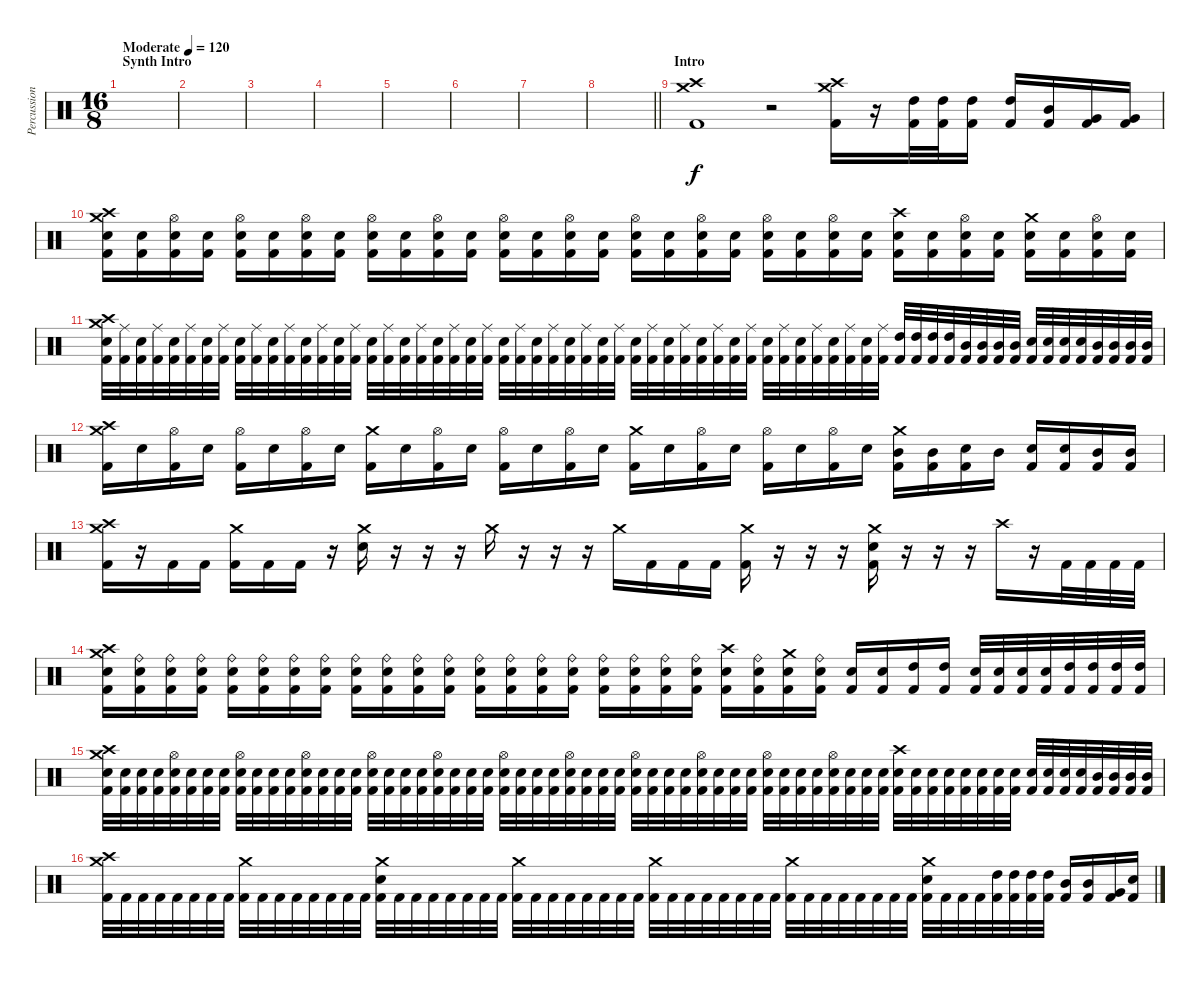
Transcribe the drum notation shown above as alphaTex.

\track ("Percussion" "Percussion") {instrument percussion}
\staff {score}
\articulation defaults
\ts (16 8)
\section ("" "Synth Intro")
\tempo (120 "Moderate")
\clef neutral
\ks c
|
|
|
|
|
|
|
\barLineRight lightlight
|
\section ("" "Intro")
("Crash high (hit)" "Crash medium (hit)" "Kick (hit) 2").1 r.2 ("Crash high (hit)" "Crash medium (hit)" "Kick (hit) 2").16 r.16 ("High Tom (hit)" "Kick (hit) 2").32 ("High Tom (hit)" "Kick (hit) 2").32 ("High Tom (hit)" "Kick (hit) 2").16 ("High Tom (hit)" "Kick (hit) 2").16 ("Mid Tom (hit)" "Kick (hit) 2").16 ("Very Low Tom (hit)" "Kick (hit) 2").16 ("Very Low Tom (hit)" "Kick (hit) 2").16 |
("Crash high (hit)" "Crash medium (hit)" "Snare (hit) 2" "Kick (hit) 2").16 ("Snare (hit) 2" "Kick (hit) 2").16 ("Hi-Hat (open)" "Snare (hit) 2" "Kick (hit) 2").16 ("Snare (hit) 2" "Kick (hit) 2").16 ("Hi-Hat (open)" "Snare (hit) 2" "Kick (hit) 2").16 ("Snare (hit) 2" "Kick (hit) 2").16 ("Hi-Hat (open)" "Snare (hit) 2" "Kick (hit) 2").16 ("Snare (hit) 2" "Kick (hit) 2").16 ("Hi-Hat (open)" "Snare (hit) 2" "Kick (hit) 2").16 ("Snare (hit) 2" "Kick (hit) 2").16 ("Hi-Hat (open)" "Snare (hit) 2" "Kick (hit) 2").16 ("Snare (hit) 2" "Kick (hit) 2").16 ("Hi-Hat (open)" "Snare (hit) 2" "Kick (hit) 2").16 ("Snare (hit) 2" "Kick (hit) 2").16 ("Hi-Hat (open)" "Snare (hit) 2" "Kick (hit) 2").16 ("Snare (hit) 2" "Kick (hit) 2").16 ("Hi-Hat (open)" "Snare (hit) 2" "Kick (hit) 2").16 ("Snare (hit) 2" "Kick (hit) 2").16 ("Hi-Hat (open)" "Snare (hit) 2" "Kick (hit) 2").16 ("Snare (hit) 2" "Kick (hit) 2").16 ("Hi-Hat (open)" "Snare (hit) 2" "Kick (hit) 2").16 ("Snare (hit) 2" "Kick (hit) 2").16 ("Hi-Hat (open)" "Snare (hit) 2" "Kick (hit) 2").16 ("Snare (hit) 2" "Kick (hit) 2").16 ("Crash high (hit)" "Snare (hit) 2" "Kick (hit) 2").16 ("Snare (hit) 2" "Kick (hit) 2").16 ("Hi-Hat (open)" "Snare (hit) 2" "Kick (hit) 2").16 ("Snare (hit) 2" "Kick (hit) 2").16 ("Crash medium (hit)" "Snare (hit) 2" "Kick (hit) 2").16 ("Snare (hit) 2" "Kick (hit) 2").16 ("Hi-Hat (open)" "Snare (hit) 2" "Kick (hit) 2").16 ("Snare (hit) 2" "Kick (hit) 2").16 |
("Crash medium (hit)" "Crash high (hit)" "Snare (hit) 2" "Kick (hit) 2").32 ("Ride (middle)" "Kick (hit) 2").32 ("Snare (hit) 2" "Kick (hit) 2").32 ("Ride (middle)" "Kick (hit) 2").32 ("Snare (hit) 2" "Kick (hit) 2").32 ("Ride (middle)" "Kick (hit) 2").32 ("Snare (hit) 2" "Kick (hit) 2").32 ("Ride (middle)" "Kick (hit) 2").32 ("Snare (hit) 2" "Kick (hit) 2").32 ("Ride (middle)" "Kick (hit) 2").32 ("Snare (hit) 2" "Kick (hit) 2").32 ("Ride (middle)" "Kick (hit) 2").32 ("Snare (hit) 2" "Kick (hit) 2").32 ("Ride (middle)" "Kick (hit) 2").32 ("Snare (hit) 2" "Kick (hit) 2").32 ("Ride (middle)" "Kick (hit) 2").32 ("Snare (hit) 2" "Kick (hit) 2").32 ("Ride (middle)" "Kick (hit) 2").32 ("Snare (hit) 2" "Kick (hit) 2").32 ("Ride (middle)" "Kick (hit) 2").32 ("Snare (hit) 2" "Kick (hit) 2").32 ("Ride (middle)" "Kick (hit) 2").32 ("Snare (hit) 2" "Kick (hit) 2").32 ("Ride (middle)" "Kick (hit) 2").32 ("Snare (hit) 2" "Kick (hit) 2").32 ("Ride (middle)" "Kick (hit) 2").32 ("Snare (hit) 2" "Kick (hit) 2").32 ("Ride (middle)" "Kick (hit) 2").32 ("Snare (hit) 2" "Kick (hit) 2").32 ("Ride (middle)" "Kick (hit) 2").32 ("Snare (hit) 2" "Kick (hit) 2").32 ("Ride (middle)" "Kick (hit) 2").32 ("Snare (hit) 2" "Kick (hit) 2").32 ("Ride (middle)" "Kick (hit) 2").32 ("Snare (hit) 2" "Kick (hit) 2").32 ("Ride (middle)" "Kick (hit) 2").32 ("Snare (hit) 2" "Kick (hit) 2").32 ("Ride (middle)" "Kick (hit) 2").32 ("Snare (hit) 2" "Kick (hit) 2").32 ("Ride (middle)" "Kick (hit) 2").32 ("Snare (hit) 2" "Kick (hit) 2").32 ("Ride (middle)" "Kick (hit) 2").32 ("Snare (hit) 2" "Kick (hit) 2").32 ("Ride (middle)" "Kick (hit) 2").32 ("Snare (hit) 2" "Kick (hit) 2").32 ("Ride (middle)" "Kick (hit) 2").32 ("Snare (hit) 2" "Kick (hit) 2").32 ("Ride (middle)" "Kick (hit) 2").32 ("High Tom (hit)" "Kick (hit) 2").32 ("High Tom (hit)" "Kick (hit) 2").32 ("High Tom (hit)" "Kick (hit) 2").32 ("High Tom (hit)" "Kick (hit) 2").32 ("Mid Tom (hit)" "Kick (hit) 2").32 ("Mid Tom (hit)" "Kick (hit) 2").32 ("Mid Tom (hit)" "Kick (hit) 2").32 ("Mid Tom (hit)" "Kick (hit) 2").32 ("Snare (hit) 2" "Kick (hit) 2").32 ("Snare (hit) 2" "Kick (hit) 2").32 ("Snare (hit) 2" "Kick (hit) 2").32 ("Snare (hit) 2" "Kick (hit) 2").32 ("Mid Tom (hit)" "Kick (hit) 2").32 ("Mid Tom (hit)" "Kick (hit) 2").32 ("Mid Tom (hit)" "Kick (hit) 2").32 ("Mid Tom (hit)" "Kick (hit) 2").32 |
("Crash medium (hit)" "Crash high (hit)" "Kick (hit) 2").16 "Snare (hit) 2".16 ("Hi-Hat (open)" "Kick (hit) 2").16 "Snare (hit) 2".16 ("Hi-Hat (open)" "Kick (hit) 2").16 "Snare (hit) 2".16 ("Hi-Hat (open)" "Kick (hit) 2").16 "Snare (hit) 2".16 ("Crash medium (hit)" "Kick (hit) 2").16 "Snare (hit) 2".16 ("Hi-Hat (open)" "Kick (hit) 2").16 "Snare (hit) 2".16 ("Hi-Hat (open)" "Kick (hit) 2").16 "Snare (hit) 2".16 ("Hi-Hat (open)" "Kick (hit) 2").16 "Snare (hit) 2".16 ("Crash medium (hit)" "Kick (hit) 2").16 "Snare (hit) 2".16 ("Hi-Hat (open)" "Kick (hit) 2").16 "Snare (hit) 2".16 ("Hi-Hat (open)" "Kick (hit) 2").16 "Snare (hit) 2".16 ("Hi-Hat (open)" "Kick (hit) 2").16 "Snare (hit) 2".16 ("Crash medium (hit)" "Mid Tom (hit)" "Kick (hit) 2").16 ("Mid Tom (hit)" "Kick (hit) 2").16 ("Snare (hit) 2" "Kick (hit) 2").16 "Mid Tom (hit)".16 ("Snare (hit) 2" "Kick (hit) 2").16 ("Snare (hit) 2" "Kick (hit) 2").16 ("Mid Tom (hit)" "Kick (hit) 2").16 ("Mid Tom (hit)" "Kick (hit) 2").16 |
("Crash high (hit)" "Crash medium (hit)" "Kick (hit) 2").16 r.16 "Kick (hit) 2".16 "Kick (hit) 2".16 ("Crash medium (hit)" "Kick (hit) 2").16 "Kick (hit) 2".16 "Kick (hit) 2".16 r.16 ("Crash medium (hit)" "Snare (hit) 2").16 r.16 r.16 r.16 "Crash medium (hit)".16 r.16 r.16 r.16 "Crash medium (hit)".16 "Kick (hit) 2".16 "Kick (hit) 2".16 "Kick (hit) 2".16 ("Crash medium (hit)" "Kick (hit) 2").16 r.16 r.16 r.16 ("Crash medium (hit)" "Snare (hit) 2" "Kick (hit) 2").16 r.16 r.16 r.16 "Crash high (hit)".16 r.16 "Kick (hit) 2".32 "Kick (hit) 2".32 "Kick (hit) 2".32 "Kick (hit) 2".32 |
("Crash high (hit)" "Crash medium (hit)" "Snare (hit) 2" "Kick (hit) 2").16 ("Ride (bell)" "Snare (hit) 2" "Kick (hit) 2").16 ("Ride (bell)" "Snare (hit) 2" "Kick (hit) 2").16 ("Ride (bell)" "Snare (hit) 2" "Kick (hit) 2").16 ("Ride (bell)" "Snare (hit) 2" "Kick (hit) 2").16 ("Ride (bell)" "Snare (hit) 2" "Kick (hit) 2").16 ("Ride (bell)" "Snare (hit) 2" "Kick (hit) 2").16 ("Ride (bell)" "Snare (hit) 2" "Kick (hit) 2").16 ("Ride (bell)" "Snare (hit) 2" "Kick (hit) 2").16 ("Ride (bell)" "Snare (hit) 2" "Kick (hit) 2").16 ("Ride (bell)" "Snare (hit) 2" "Kick (hit) 2").16 ("Ride (bell)" "Snare (hit) 2" "Kick (hit) 2").16 ("Ride (bell)" "Snare (hit) 2" "Kick (hit) 2").16 ("Ride (bell)" "Snare (hit) 2" "Kick (hit) 2").16 ("Ride (bell)" "Snare (hit) 2" "Kick (hit) 2").16 ("Ride (bell)" "Snare (hit) 2" "Kick (hit) 2").16 ("Ride (bell)" "Snare (hit) 2" "Kick (hit) 2").16 ("Ride (bell)" "Snare (hit) 2" "Kick (hit) 2").16 ("Ride (bell)" "Snare (hit) 2" "Kick (hit) 2").16 ("Ride (bell)" "Snare (hit) 2" "Kick (hit) 2").16 ("Crash high (hit)" "Snare (hit) 2" "Kick (hit) 2").16 ("Ride (bell)" "Snare (hit) 2" "Kick (hit) 2").16 ("Crash medium (hit)" "Snare (hit) 2" "Kick (hit) 2").16 ("Ride (bell)" "Snare (hit) 2" "Kick (hit) 2").16 ("Snare (hit) 2" "Kick (hit) 2").16 ("Snare (hit) 2" "Kick (hit) 2").16 ("High Tom (hit)" "Kick (hit) 2").16 ("High Tom (hit)" "Kick (hit) 2").16 ("Snare (hit) 2" "Kick (hit) 2").32 ("Snare (hit) 2" "Kick (hit) 2").32 ("Snare (hit) 2" "Kick (hit) 2").32 ("Snare (hit) 2" "Kick (hit) 2").32 ("High Tom (hit)" "Kick (hit) 2").32 ("High Tom (hit)" "Kick (hit) 2").32 ("High Tom (hit)" "Kick (hit) 2").32 ("High Tom (hit)" "Kick (hit) 2").32 |
("Crash medium (hit)" "Crash high (hit)" "Snare (hit) 2" "Kick (hit) 2").32 ("Snare (hit) 2" "Kick (hit) 2").32 ("Snare (hit) 2" "Kick (hit) 2").32 ("Snare (hit) 2" "Kick (hit) 2").32 ("Hi-Hat (open)" "Snare (hit) 2" "Kick (hit) 2").32 ("Snare (hit) 2" "Kick (hit) 2").32 ("Snare (hit) 2" "Kick (hit) 2").32 ("Snare (hit) 2" "Kick (hit) 2").32 ("Hi-Hat (open)" "Snare (hit) 2" "Kick (hit) 2").32 ("Snare (hit) 2" "Kick (hit) 2").32 ("Snare (hit) 2" "Kick (hit) 2").32 ("Snare (hit) 2" "Kick (hit) 2").32 ("Hi-Hat (open)" "Snare (hit) 2" "Kick (hit) 2").32 ("Snare (hit) 2" "Kick (hit) 2").32 ("Snare (hit) 2" "Kick (hit) 2").32 ("Snare (hit) 2" "Kick (hit) 2").32 ("Hi-Hat (open)" "Snare (hit) 2" "Kick (hit) 2").32 ("Snare (hit) 2" "Kick (hit) 2").32 ("Snare (hit) 2" "Kick (hit) 2").32 ("Snare (hit) 2" "Kick (hit) 2").32 ("Hi-Hat (open)" "Snare (hit) 2" "Kick (hit) 2").32 ("Snare (hit) 2" "Kick (hit) 2").32 ("Snare (hit) 2" "Kick (hit) 2").32 ("Snare (hit) 2" "Kick (hit) 2").32 ("Hi-Hat (open)" "Snare (hit) 2" "Kick (hit) 2").32 ("Snare (hit) 2" "Kick (hit) 2").32 ("Snare (hit) 2" "Kick (hit) 2").32 ("Snare (hit) 2" "Kick (hit) 2").32 ("Hi-Hat (open)" "Snare (hit) 2" "Kick (hit) 2").32 ("Snare (hit) 2" "Kick (hit) 2").32 ("Snare (hit) 2" "Kick (hit) 2").32 ("Snare (hit) 2" "Kick (hit) 2").32 ("Hi-Hat (open)" "Snare (hit) 2" "Kick (hit) 2").32 ("Snare (hit) 2" "Kick (hit) 2").32 ("Snare (hit) 2" "Kick (hit) 2").32 ("Snare (hit) 2" "Kick (hit) 2").32 ("Hi-Hat (open)" "Snare (hit) 2" "Kick (hit) 2").32 ("Snare (hit) 2" "Kick (hit) 2").32 ("Snare (hit) 2" "Kick (hit) 2").32 ("Snare (hit) 2" "Kick (hit) 2").32 ("Hi-Hat (open)" "Snare (hit) 2" "Kick (hit) 2").32 ("Snare (hit) 2" "Kick (hit) 2").32 ("Snare (hit) 2" "Kick (hit) 2").32 ("Snare (hit) 2" "Kick (hit) 2").32 ("Hi-Hat (open)" "Snare (hit) 2" "Kick (hit) 2").32 ("Snare (hit) 2" "Kick (hit) 2").32 ("Snare (hit) 2" "Kick (hit) 2").32 ("Snare (hit) 2" "Kick (hit) 2").32 ("Crash high (hit)" "Snare (hit) 2" "Kick (hit) 2").32 ("Snare (hit) 2" "Kick (hit) 2").32 ("Snare (hit) 2" "Kick (hit) 2").32 ("Snare (hit) 2" "Kick (hit) 2").32 ("Snare (hit) 2" "Kick (hit) 2").32 ("Snare (hit) 2" "Kick (hit) 2").32 ("Snare (hit) 2" "Kick (hit) 2").32 ("Snare (hit) 2" "Kick (hit) 2").32 ("Snare (hit) 2" "Kick (hit) 2").32 ("Snare (hit) 2" "Kick (hit) 2").32 ("Snare (hit) 2" "Kick (hit) 2").32 ("Snare (hit) 2" "Kick (hit) 2").32 ("Mid Tom (hit)" "Kick (hit) 2").32 ("Mid Tom (hit)" "Kick (hit) 2").32 ("Mid Tom (hit)" "Kick (hit) 2").32 ("Mid Tom (hit)" "Kick (hit) 2").32 |
("Crash medium (hit)" "Crash high (hit)" "Kick (hit) 2").32 "Kick (hit) 2".32 "Kick (hit) 2".32 "Kick (hit) 2".32 "Kick (hit) 2".32 "Kick (hit) 2".32 "Kick (hit) 2".32 "Kick (hit) 2".32 ("Crash medium (hit)" "Kick (hit) 2").32 "Kick (hit) 2".32 "Kick (hit) 2".32 "Kick (hit) 2".32 "Kick (hit) 2".32 "Kick (hit) 2".32 "Kick (hit) 2".32 "Kick (hit) 2".32 ("Crash medium (hit)" "Snare (hit) 2" "Kick (hit) 2").32 "Kick (hit) 2".32 "Kick (hit) 2".32 "Kick (hit) 2".32 "Kick (hit) 2".32 "Kick (hit) 2".32 "Kick (hit) 2".32 "Kick (hit) 2".32 ("Crash medium (hit)" "Kick (hit) 2").32 "Kick (hit) 2".32 "Kick (hit) 2".32 "Kick (hit) 2".32 "Kick (hit) 2".32 "Kick (hit) 2".32 "Kick (hit) 2".32 "Kick (hit) 2".32 ("Crash medium (hit)" "Kick (hit) 2").32 "Kick (hit) 2".32 "Kick (hit) 2".32 "Kick (hit) 2".32 "Kick (hit) 2".32 "Kick (hit) 2".32 "Kick (hit) 2".32 "Kick (hit) 2".32 ("Crash medium (hit)" "Kick (hit) 2").32 "Kick (hit) 2".32 "Kick (hit) 2".32 "Kick (hit) 2".32 "Kick (hit) 2".32 "Kick (hit) 2".32 "Kick (hit) 2".32 "Kick (hit) 2".32 ("Crash medium (hit)" "Snare (hit) 2" "Kick (hit) 2").32 "Kick (hit) 2".32 "Kick (hit) 2".32 "Kick (hit) 2".32 ("High Tom (hit)" "Kick (hit) 2").32 ("High Tom (hit)" "Kick (hit) 2").32 ("High Tom (hit)" "Kick (hit) 2").32 ("High Tom (hit)" "Kick (hit) 2").32 ("Mid Tom (hit)" "Kick (hit) 2").16 ("Mid Tom (hit)" "Kick (hit) 2").16 ("Very Low Tom (hit)" "Kick (hit) 2").16 ("Snare (hit) 2" "Kick (hit) 2").16
